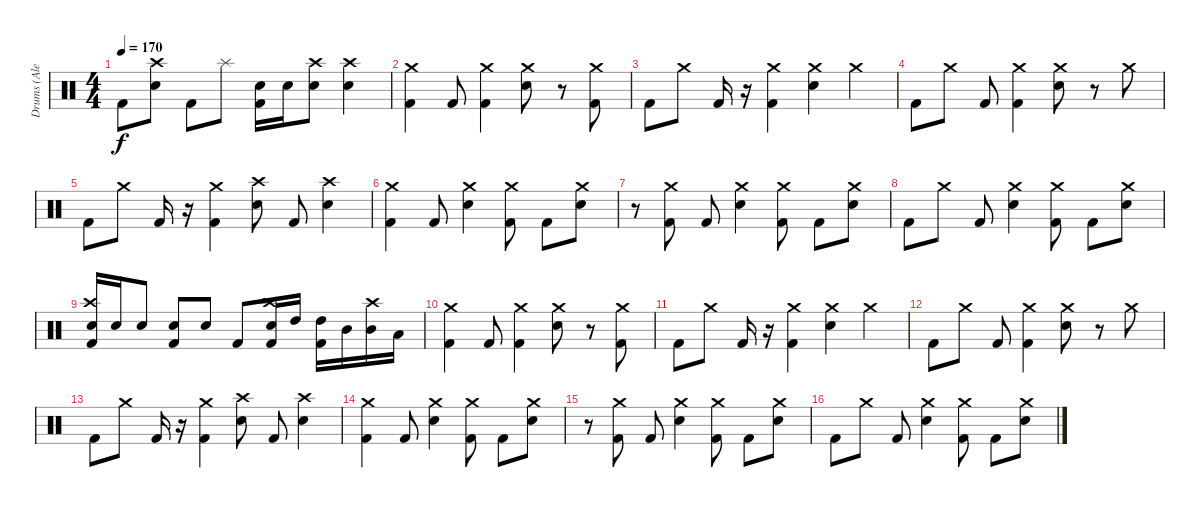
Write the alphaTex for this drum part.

\track ("Drums (Alex Shelnutt)" "Drums (Ale") {instrument percussion}
\staff {score}
\articulation defaults
\ts (4 4)
\tempo 170
\clef neutral
\ks c "Kick (hit) 2".8{dy f}
("Crash high (hit)" "Electric Snare (hit)").8 "Kick (hit) 2".8 "Splash (hit)".8 ("Electric Snare (hit)" "Kick (hit) 2").16 "Electric Snare (hit)".16 ("Crash high (hit)" "Electric Snare (hit)").8 ("Crash high (hit)" "Electric Snare (hit)").4 |
("Crash medium (hit)" "Kick (hit) 2").4 "Kick (hit) 2".8 ("Crash medium (hit)" "Kick (hit) 2").4 ("Crash medium (hit)" "Electric Snare (hit)").8 r.8 ("Crash medium (hit)" "Kick (hit) 2").8 |
"Kick (hit) 2".8 "Crash medium (hit)".8 "Kick (hit) 2".16 r.16 ("Crash medium (hit)" "Kick (hit) 2").4 ("Crash medium (hit)" "Electric Snare (hit)").4 "Crash medium (hit)".4 |
"Kick (hit) 2".8 "Crash medium (hit)".8 "Kick (hit) 2".8 ("Crash medium (hit)" "Kick (hit) 2").4 ("Crash medium (hit)" "Electric Snare (hit)").8 r.8 "Crash medium (hit)".8 |
"Kick (hit) 2".8 "Crash medium (hit)".8 "Kick (hit) 2".16 r.16 ("Crash medium (hit)" "Kick (hit) 2").4 ("Crash high (hit)" "Electric Snare (hit)").8 "Kick (hit) 2".8 ("Crash high (hit)" "Electric Snare (hit)").4 |
("Crash medium (hit)" "Kick (hit) 2").4 "Kick (hit) 2".8 ("Crash medium (hit)" "Electric Snare (hit)").4 ("Crash medium (hit)" "Kick (hit) 2").8 "Kick (hit) 2".8 ("Crash medium (hit)" "Electric Snare (hit)").8 |
r.8 ("Crash medium (hit)" "Kick (hit) 2").8 "Kick (hit) 2".8 ("Crash medium (hit)" "Electric Snare (hit)").4 ("Crash medium (hit)" "Kick (hit) 2").8 "Kick (hit) 2".8 ("Crash medium (hit)" "Electric Snare (hit)").8 |
"Kick (hit) 2".8 "Crash medium (hit)".8 "Kick (hit) 2".8 ("Crash medium (hit)" "Electric Snare (hit)").4 ("Crash medium (hit)" "Kick (hit) 2").8 "Kick (hit) 2".8 ("Crash medium (hit)" "Electric Snare (hit)").8 |
("Crash high (hit)" "Electric Snare (hit)" "Kick (hit) 2").16 "Electric Snare (hit)".16 "Electric Snare (hit)".8 ("Electric Snare (hit)" "Kick (hit) 2").8 "Electric Snare (hit)".8 "Kick (hit) 2".8 ("Crash high (hit)" "Electric Snare (hit)" "Kick (hit) 2").16 "High Tom (hit)".16 ("High Tom (hit)" "Kick (hit) 2").16 "Mid Tom (hit)".16 ("Crash high (hit)" "Mid Tom (hit)").16 "Low Tom (hit)".16 |
("Crash medium (hit)" "Kick (hit) 2").4 "Kick (hit) 2".8 ("Crash medium (hit)" "Kick (hit) 2").4 ("Crash medium (hit)" "Electric Snare (hit)").8 r.8 ("Crash medium (hit)" "Kick (hit) 2").8 |
"Kick (hit) 2".8 "Crash medium (hit)".8 "Kick (hit) 2".16 r.16 ("Crash medium (hit)" "Kick (hit) 2").4 ("Crash medium (hit)" "Electric Snare (hit)").4 "Crash medium (hit)".4 |
"Kick (hit) 2".8 "Crash medium (hit)".8 "Kick (hit) 2".8 ("Crash medium (hit)" "Kick (hit) 2").4 ("Crash medium (hit)" "Electric Snare (hit)").8 r.8 "Crash medium (hit)".8 |
"Kick (hit) 2".8 "Crash medium (hit)".8 "Kick (hit) 2".16 r.16 ("Crash medium (hit)" "Kick (hit) 2").4 ("Crash high (hit)" "Electric Snare (hit)").8 "Kick (hit) 2".8 ("Crash high (hit)" "Electric Snare (hit)").4 |
("Crash medium (hit)" "Kick (hit) 2").4 "Kick (hit) 2".8 ("Crash medium (hit)" "Electric Snare (hit)").4 ("Crash medium (hit)" "Kick (hit) 2").8 "Kick (hit) 2".8 ("Crash medium (hit)" "Electric Snare (hit)").8 |
r.8 ("Crash medium (hit)" "Kick (hit) 2").8 "Kick (hit) 2".8 ("Crash medium (hit)" "Electric Snare (hit)").4 ("Crash medium (hit)" "Kick (hit) 2").8 "Kick (hit) 2".8 ("Crash medium (hit)" "Electric Snare (hit)").8 |
"Kick (hit) 2".8 "Crash medium (hit)".8 "Kick (hit) 2".8 ("Crash medium (hit)" "Electric Snare (hit)").4 ("Crash medium (hit)" "Kick (hit) 2").8 "Kick (hit) 2".8 ("Crash medium (hit)" "Electric Snare (hit)").8
